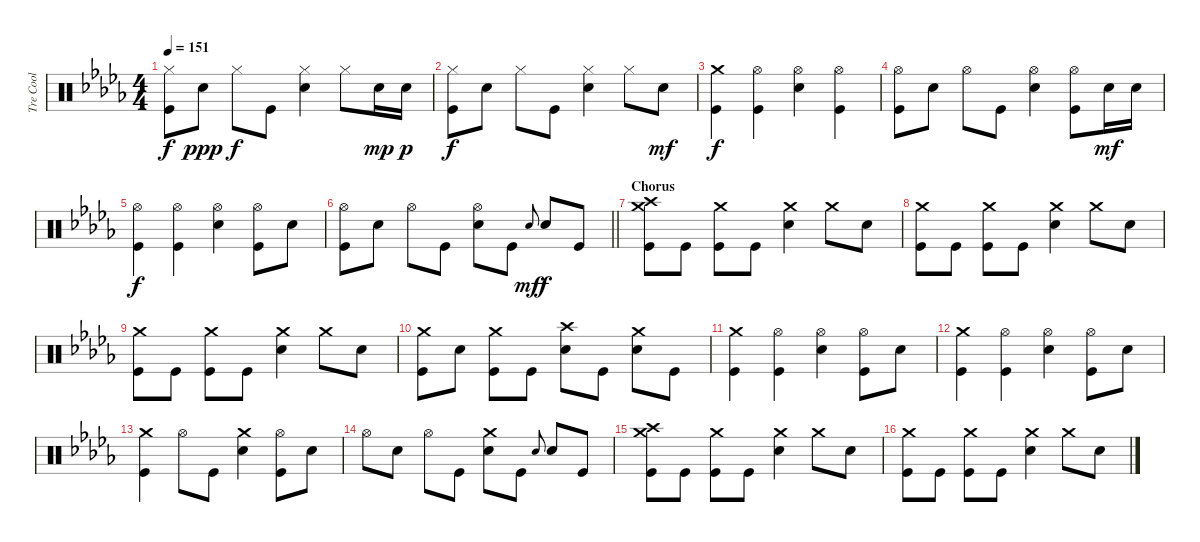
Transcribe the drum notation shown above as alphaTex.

\track ("Tre Cool" "Tre Cool") {instrument percussion}
\staff {score}
\articulation defaults
\ts (4 4)
\tempo 151
\clef neutral
\ks db
("Hi-Hat (closed)" "Kick (hit)").8{dy f} "Electric Snare (hit)".8{dy ppp} "Hi-Hat (closed)".8{dy f} "Kick (hit)".8 ("Hi-Hat (closed)" "Electric Snare (hit)").4 "Hi-Hat (closed)".8 "Electric Snare (hit)".16{dy mp} "Electric Snare (hit)".16{dy p} |
("Hi-Hat (closed)" "Kick (hit)").8{dy f} "Electric Snare (hit)".8 "Hi-Hat (closed)".8 "Kick (hit)".8 ("Hi-Hat (closed)" "Electric Snare (hit)").4 "Hi-Hat (closed)".8 "Electric Snare (hit)".8{dy mf} |
("Crash medium (hit)" "Kick (hit)").4{dy f} ("Hi-Hat (open)" "Kick (hit)").4 ("Hi-Hat (open)" "Electric Snare (hit)").4 ("Hi-Hat (open)" "Kick (hit)").4 |
("Hi-Hat (open)" "Kick (hit)").8 "Electric Snare (hit)".8 "Hi-Hat (open)".8 "Kick (hit)".8 ("Hi-Hat (open)" "Electric Snare (hit)").4 ("Hi-Hat (open)" "Kick (hit)").8 "Electric Snare (hit)".16{dy mf} "Electric Snare (hit)".16 |
("Hi-Hat (open)" "Kick (hit)").4{dy f} ("Hi-Hat (open)" "Kick (hit)").4 ("Hi-Hat (open)" "Electric Snare (hit)").4 ("Hi-Hat (open)" "Kick (hit)").8 "Electric Snare (hit)".8 |
\barLineRight lightlight
("Hi-Hat (open)" "Kick (hit)").8 "Electric Snare (hit)".8 "Hi-Hat (open)".8 "Kick (hit)".8 ("Hi-Hat (open)" "Electric Snare (hit)").8 "Kick (hit)".8 "Electric Snare (hit)".8{gr onbeat dy mf} "Electric Snare (hit)".8{dy f} "Kick (hit)".8 |
\section ("" "Chorus")
("Crash medium (hit)" "Crash high (hit)" "Kick (hit)").8 "Kick (hit)".8 ("Crash medium (hit)" "Kick (hit)").8 "Kick (hit)".8 ("Crash medium (hit)" "Electric Snare (hit)").4 "Crash medium (hit)".8 "Electric Snare (hit)".8 |
("Crash medium (hit)" "Kick (hit)").8 "Kick (hit)".8 ("Crash medium (hit)" "Kick (hit)").8 "Kick (hit)".8 ("Crash medium (hit)" "Electric Snare (hit)").4 "Crash medium (hit)".8 "Electric Snare (hit)".8 |
("Crash medium (hit)" "Kick (hit)").8 "Kick (hit)".8 ("Crash medium (hit)" "Kick (hit)").8 "Kick (hit)".8 ("Crash medium (hit)" "Electric Snare (hit)").4 "Crash medium (hit)".8 "Electric Snare (hit)".8 |
("Crash medium (hit)" "Kick (hit)").8 "Electric Snare (hit)".8 ("Crash medium (hit)" "Kick (hit)").8 "Kick (hit)".8 ("Crash high (hit)" "Electric Snare (hit)").8 "Kick (hit)".8 ("Crash medium (hit)" "Electric Snare (hit)").8 "Kick (hit)".8 |
("Crash medium (hit)" "Kick (hit)").4 ("Hi-Hat (open)" "Kick (hit)").4 ("Hi-Hat (open)" "Electric Snare (hit)").4 ("Hi-Hat (open)" "Kick (hit)").8 "Electric Snare (hit)".8 |
("Crash medium (hit)" "Kick (hit)").4 ("Hi-Hat (open)" "Kick (hit)").4 ("Hi-Hat (open)" "Electric Snare (hit)").4 ("Hi-Hat (open)" "Kick (hit)").8 "Electric Snare (hit)".8 |
("Crash medium (hit)" "Kick (hit)").4 "Hi-Hat (open)".8 "Kick (hit)".8 ("Crash medium (hit)" "Electric Snare (hit)").4 ("Hi-Hat (open)" "Kick (hit)").8 "Electric Snare (hit)".8 |
"Hi-Hat (open)".8 "Electric Snare (hit)".8 "Hi-Hat (open)".8 "Kick (hit)".8 ("Crash medium (hit)" "Electric Snare (hit)").8 "Kick (hit)".8 "Electric Snare (hit)".8{gr onbeat} "Electric Snare (hit)".8 "Kick (hit)".8 |
("Crash medium (hit)" "Crash high (hit)" "Kick (hit)").8 "Kick (hit)".8 ("Crash medium (hit)" "Kick (hit)").8 "Kick (hit)".8 ("Crash medium (hit)" "Electric Snare (hit)").4 "Crash medium (hit)".8 "Electric Snare (hit)".8 |
("Crash medium (hit)" "Kick (hit)").8 "Kick (hit)".8 ("Crash medium (hit)" "Kick (hit)").8 "Kick (hit)".8 ("Crash medium (hit)" "Electric Snare (hit)").4 "Crash medium (hit)".8 "Electric Snare (hit)".8
